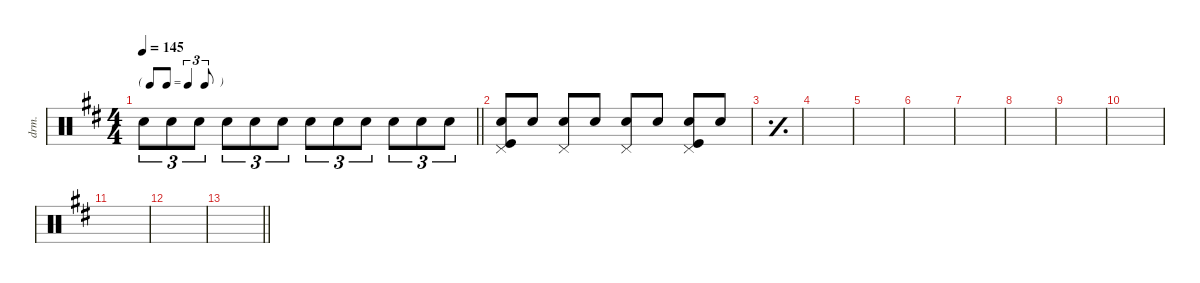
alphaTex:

\defaultSystemsLayout 4
\hideDynamics
\bracketExtendMode nobrackets
\otherSystemsTrackNameOrientation horizontal
\track ("Drumkit" "drm.") {instrument percussion}
\staff {score}
\articulation defaults
\ts (4 4)
\tf triplet8th
\tempo 145
\clef neutral
\barLineRight lightlight
\ks d "Snare (hit) 2".8{tu (3 2) dy pp} "Snare (hit) 2".8{tu (3 2)} "Snare (hit) 2".8{tu (3 2)} "Snare (hit) 2".8{tu (3 2) dy p} "Snare (hit) 2".8{tu (3 2)} "Snare (hit) 2".8{tu (3 2) dy mp} "Snare (hit) 2".8{tu (3 2)} "Snare (hit) 2".8{tu (3 2) dy mf} "Snare (hit) 2".8{tu (3 2) dy f} "Snare (hit) 2".8{tu (3 2) dy ff} "Snare (hit) 2".8{tu (3 2)} "Snare (hit) 2".8{tu (3 2)}
|
("Snare (hit) 2" "Pedal Hi-Hat (hit)" "Kick (hit)").8{dy pp} "Snare (hit) 2".8 ("Snare (hit) 2" "Pedal Hi-Hat (hit)").8{dy f} "Snare (hit) 2".8{dy pp} ("Snare (hit) 2" "Pedal Hi-Hat (hit)").8 "Snare (hit) 2".8 ("Snare (hit) 2" "Pedal Hi-Hat (hit)" "Kick (hit)").8{dy f} "Snare (hit) 2".8{dy pp} |
\simile simple
|
|
|
|
|
|
|
|
|
|
\barLineRight lightlight
